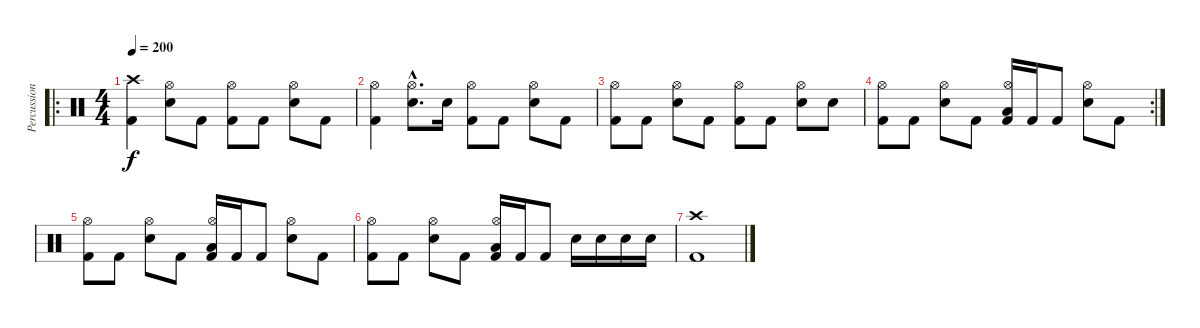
\track ("Percussions" "Percussion") {instrument percussion}
\staff {score}
\articulation defaults
\ro
\ts (4 4)
\tempo 200
\clef neutral
\ks c
("Crash high (hit)" "Kick (hit) 2").4{dy f} ("Hi-Hat (open)" "Snare (hit) 2").8 "Kick (hit) 2".8 ("Hi-Hat (open)" "Kick (hit) 2").8 "Kick (hit) 2".8 ("Hi-Hat (open)" "Snare (hit) 2").8 "Kick (hit) 2".8 |
("Hi-Hat (open)" "Kick (hit) 2").4 ("Hi-Hat (open)"{hac} "Snare (hit) 2"{hac}).8{d} "Snare (hit) 2".16 ("Hi-Hat (open)" "Kick (hit) 2").8 "Kick (hit) 2".8 ("Hi-Hat (open)" "Snare (hit) 2").8 "Kick (hit) 2".8 |
("Hi-Hat (open)" "Kick (hit) 2").8 "Kick (hit) 2".8 ("Hi-Hat (open)" "Snare (hit) 2").8 "Kick (hit) 2".8 ("Hi-Hat (open)" "Kick (hit) 2").8 "Kick (hit) 2".8 ("Hi-Hat (open)" "Snare (hit) 2").8 "Snare (hit) 2".8 |
\rc 2
("Hi-Hat (open)" "Kick (hit) 2").8 "Kick (hit) 2".8 ("Hi-Hat (open)" "Snare (hit) 2").8 "Kick (hit) 2".8 ("Hi-Hat (open)" "Low Tom (hit)" "Kick (hit) 2").16 "Kick (hit) 2".16 "Kick (hit) 2".8 ("Hi-Hat (open)" "Snare (hit) 2").8 "Kick (hit) 2".8 |
("Hi-Hat (open)" "Kick (hit) 2").8 "Kick (hit) 2".8 ("Hi-Hat (open)" "Snare (hit) 2").8 "Kick (hit) 2".8 ("Hi-Hat (open)" "Low Tom (hit)" "Kick (hit) 2").16 "Kick (hit) 2".16 "Kick (hit) 2".8 ("Hi-Hat (open)" "Snare (hit) 2").8 "Kick (hit) 2".8 |
("Hi-Hat (open)" "Kick (hit) 2").8 "Kick (hit) 2".8 ("Hi-Hat (open)" "Snare (hit) 2").8 "Kick (hit) 2".8 ("Hi-Hat (open)" "Low Tom (hit)" "Kick (hit) 2").16 "Kick (hit) 2".16 "Kick (hit) 2".8 "Snare (hit) 2".16 "Snare (hit) 2".16 "Snare (hit) 2".16 "Snare (hit) 2".16 |
("Crash high (hit)" "Kick (hit) 2").1
